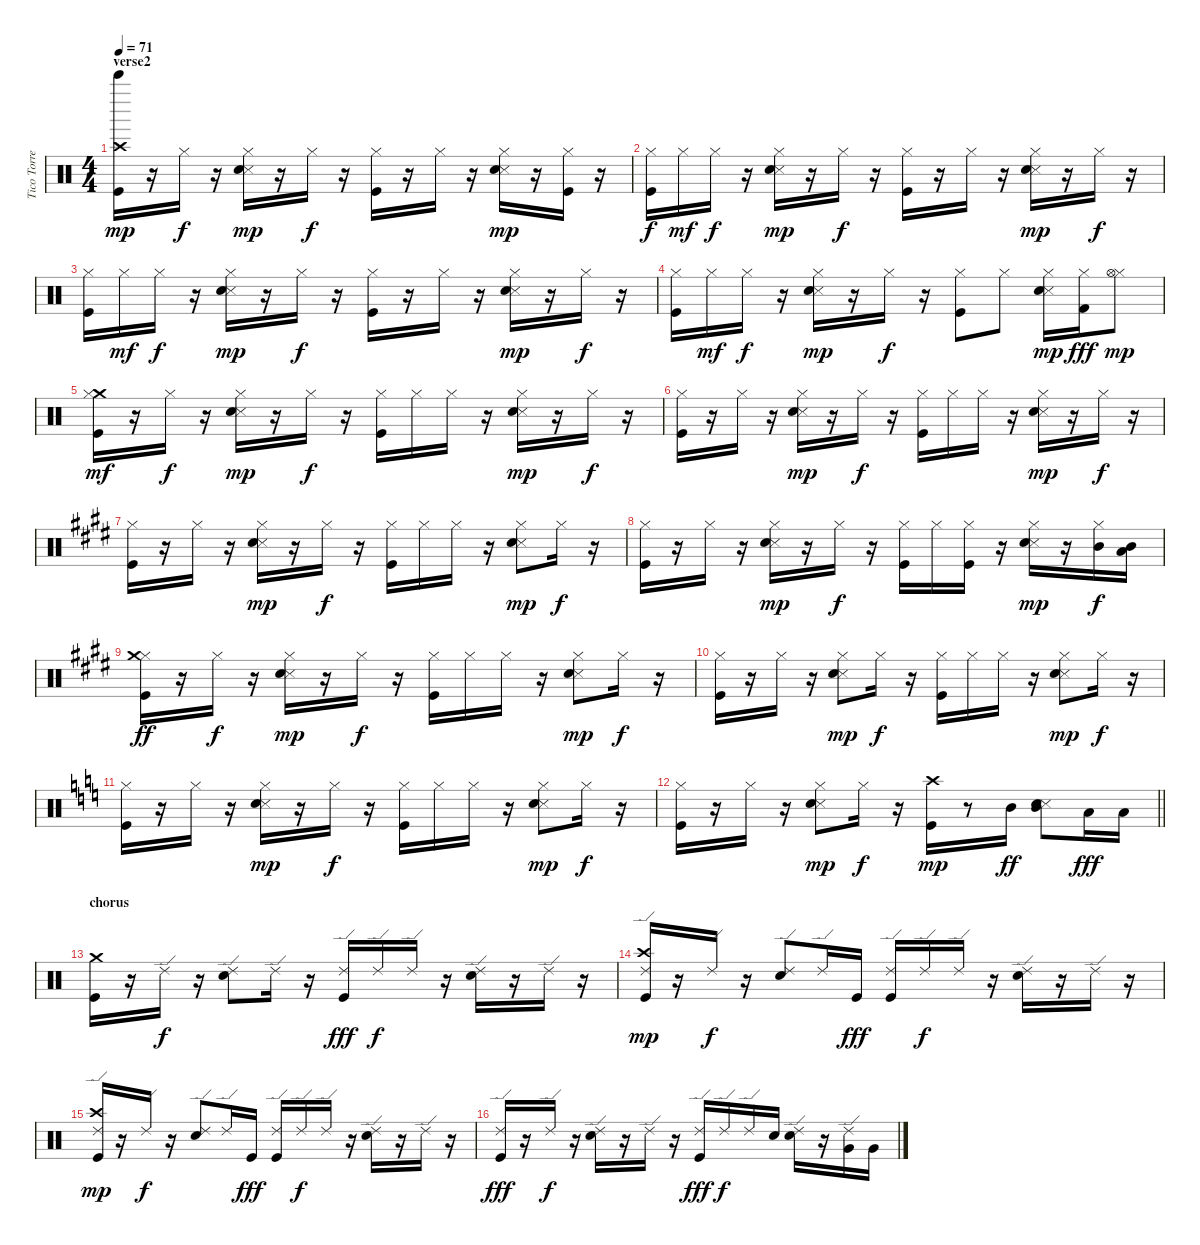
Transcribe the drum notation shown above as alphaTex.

\track ("Tico Torres" "Tico Torre") {instrument percussion}
\staff {score}
\articulation defaults
\ts (4 4)
\section ("" "verse2")
\tempo 71
\clef neutral
\ks c
("Kick (hit)" "Crash high (hit)" "Bell Tree (hit)").16{dy mp} r.16 "Hi-Hat (closed)".16{dy f} r.16 ("Snare (side stick) 3" "Hi-Hat (closed)" "Snare (hit) 2").16{dy mp} r.16 "Hi-Hat (closed)".16{dy f} r.16 ("Kick (hit)" "Hi-Hat (closed)").16 r.16 "Hi-Hat (closed)".16 r.16 ("Snare (side stick) 3" "Hi-Hat (closed)" "Snare (hit) 2").16{dy mp} r.16 ("Hi-Hat (closed)" "Kick (hit)").16 r.16 |
("Kick (hit)" "Hi-Hat (closed)").16{dy f} "Hi-Hat (closed)".16{dy mf} "Hi-Hat (closed)".16{dy f} r.16 ("Snare (side stick) 3" "Snare (hit) 2" "Hi-Hat (closed)").16{dy mp} r.16 "Hi-Hat (closed)".16{dy f} r.16 ("Kick (hit)" "Hi-Hat (closed)").16 r.16 "Hi-Hat (closed)".16 r.16 ("Snare (side stick) 3" "Snare (hit) 2" "Hi-Hat (closed)").16{dy mp} r.16 "Hi-Hat (closed)".16{dy f} r.16 |
("Kick (hit)" "Hi-Hat (closed)").16 "Hi-Hat (closed)".16{dy mf} "Hi-Hat (closed)".16{dy f} r.16 ("Snare (side stick) 3" "Snare (hit) 2" "Hi-Hat (closed)").16{dy mp} r.16 "Hi-Hat (closed)".16{dy f} r.16 ("Kick (hit)" "Hi-Hat (closed)").16 r.16 "Hi-Hat (closed)".16 r.16 ("Snare (side stick) 3" "Snare (hit) 2" "Hi-Hat (closed)").16{dy mp} r.16 "Hi-Hat (closed)".16{dy f} r.16 |
("Kick (hit)" "Hi-Hat (closed)").16 "Hi-Hat (closed)".16{dy mf} "Hi-Hat (closed)".16{dy f} r.16 ("Snare (side stick) 3" "Snare (hit) 2" "Hi-Hat (closed)").16{dy mp} r.16 "Hi-Hat (closed)".16{dy f} r.16 ("Kick (hit)" "Hi-Hat (closed)").8 "Hi-Hat (closed)".8 ("Snare (side stick) 3" "Snare (hit) 2" "Hi-Hat (closed)").16{dy mp} ("Hi-Hat (closed)" "Kick (hit) 2").16{dy fff} ("Hi-Hat (closed)" "Hi-Hat (open)").8{dy mp} |
("Crash medium (hit)" "Kick (hit)" "Hi-Hat (closed)").16{dy mf} r.16 "Hi-Hat (closed)".16{dy f} r.16 ("Snare (side stick) 3" "Snare (hit) 2" "Hi-Hat (closed)").16{dy mp} r.16 "Hi-Hat (closed)".16{dy f} r.16 ("Kick (hit)" "Hi-Hat (closed)").16 "Hi-Hat (closed)".16 "Hi-Hat (closed)".16 r.16 ("Snare (side stick) 3" "Snare (hit) 2" "Hi-Hat (closed)").16{dy mp} r.16 "Hi-Hat (closed)".16{dy f} r.16 |
("Kick (hit)" "Hi-Hat (closed)").16 r.16 "Hi-Hat (closed)".16 r.16 ("Snare (side stick) 3" "Snare (hit) 2" "Hi-Hat (closed)").16{dy mp} r.16 "Hi-Hat (closed)".16{dy f} r.16 ("Kick (hit)" "Hi-Hat (closed)").16 "Hi-Hat (closed)".16 "Hi-Hat (closed)".16 r.16 ("Snare (side stick) 3" "Snare (hit) 2" "Hi-Hat (closed)").16{dy mp} r.16 "Hi-Hat (closed)".16{dy f} r.16 |
\ks e
("Kick (hit)" "Hi-Hat (closed)").16 r.16 "Hi-Hat (closed)".16 r.16 ("Snare (side stick) 3" "Snare (hit) 2" "Hi-Hat (closed)").16{dy mp} r.16 "Hi-Hat (closed)".16{dy f} r.16 ("Kick (hit)" "Hi-Hat (closed)").16 "Hi-Hat (closed)".16 "Hi-Hat (closed)".16 r.16 ("Hi-Hat (closed)" "Snare (side stick) 3" "Snare (hit) 2").8{dy mp} "Hi-Hat (closed)".16{dy f} r.16 |
("Kick (hit)" "Hi-Hat (closed)").16 r.16 "Hi-Hat (closed)".16 r.16 ("Snare (side stick) 3" "Snare (hit) 2" "Hi-Hat (closed)").16{dy mp} r.16 "Hi-Hat (closed)".16{dy f} r.16 ("Kick (hit)" "Hi-Hat (closed)").16 "Hi-Hat (closed)".16 ("Kick (hit)" "Hi-Hat (closed)").16 r.16 ("Snare (side stick) 3" "Snare (hit) 2" "Hi-Hat (closed)").16{dy mp} r.16 ("Mid Tom (hit)" "Hi-Hat (closed)").16{dy f} ("Mid Tom (hit)" "Low Tom (hit)").16 |
("Kick (hit)" "Hi-Hat (closed)" "Crash medium (hit)").16{dy ff} r.16 "Hi-Hat (closed)".16{dy f} r.16 ("Snare (side stick) 3" "Snare (hit) 2" "Hi-Hat (closed)").16{dy mp} r.16 "Hi-Hat (closed)".16{dy f} r.16 ("Kick (hit)" "Hi-Hat (closed)").16 "Hi-Hat (closed)".16 "Hi-Hat (closed)".16 r.16 ("Hi-Hat (closed)" "Snare (side stick) 3" "Snare (hit) 2").8{dy mp} "Hi-Hat (closed)".16{dy f} r.16 |
("Kick (hit)" "Hi-Hat (closed)").16 r.16 "Hi-Hat (closed)".16 r.16 ("Snare (side stick) 3" "Snare (hit) 2" "Hi-Hat (closed)").8{dy mp} "Hi-Hat (closed)".16{dy f} r.16 ("Kick (hit)" "Hi-Hat (closed)").16 "Hi-Hat (closed)".16 "Hi-Hat (closed)".16 r.16 ("Hi-Hat (closed)" "Snare (side stick) 3" "Snare (hit) 2").8{dy mp} "Hi-Hat (closed)".16{dy f} r.16 |
\ks c
("Kick (hit)" "Hi-Hat (closed)").16 r.16 "Hi-Hat (closed)".16 r.16 ("Snare (side stick) 3" "Snare (hit) 2" "Hi-Hat (closed)").16{dy mp} r.16 "Hi-Hat (closed)".16{dy f} r.16 ("Kick (hit)" "Hi-Hat (closed)").16 "Hi-Hat (closed)".16 "Hi-Hat (closed)".16 r.16 ("Hi-Hat (closed)" "Snare (side stick) 3" "Snare (hit) 2").8{dy mp} "Hi-Hat (closed)".16{dy f} r.16 |
\barLineRight lightlight
("Kick (hit)" "Hi-Hat (closed)").16 r.16 "Hi-Hat (closed)".16 r.16 ("Snare (side stick) 3" "Snare (hit) 2" "Hi-Hat (closed)").8{dy mp} "Hi-Hat (closed)".16{dy f} r.16 ("Crash high (hit)" "Kick (hit)").16{dy mp} r.8 "Mid Tom (hit)".16{dy ff} ("Mid Tom (hit)" "Snare (side stick) 3" "Snare (hit) 2").8 "Low Tom (hit)".16{dy fff} "Low Tom (hit)".16 |
\section ("" "chorus")
("Kick (hit)" "Crash medium (hit)").16 r.16 "Ride (edge) 2".16{dy f} r.16 ("Snare (hit) 2" "Ride (edge) 2").8 "Ride (edge) 2".16 r.16 ("Kick (hit)" "Ride (edge) 2").16{dy fff} "Ride (edge) 2".16{dy f} "Ride (edge) 2".16 r.16 ("Snare (hit) 2" "Ride (edge) 2").16 r.16 "Ride (edge) 2".16 r.16 |
("Kick (hit)" "Crash high (hit)" "Ride (edge) 2").16{dy mp} r.16 "Ride (edge) 2".16{dy f} r.16 ("Snare (hit) 2" "Ride (edge) 2").8 "Ride (edge) 2".16 "Kick (hit)".16{dy fff} ("Kick (hit)" "Ride (edge) 2").16 "Ride (edge) 2".16{dy f} "Ride (edge) 2".16 r.16 ("Snare (hit) 2" "Ride (edge) 2").16 r.16 "Ride (edge) 2".16 r.16 |
("Kick (hit)" "Crash high (hit)" "Ride (edge) 2").16{dy mp} r.16 "Ride (edge) 2".16{dy f} r.16 ("Snare (hit) 2" "Ride (edge) 2").8 "Ride (edge) 2".16 "Kick (hit)".16{dy fff} ("Kick (hit)" "Ride (edge) 2").16 "Ride (edge) 2".16{dy f} "Ride (edge) 2".16 r.16 ("Snare (hit) 2" "Ride (edge) 2").16 r.16 "Ride (edge) 2".16 r.16 |
("Ride (edge) 2" "Kick (hit)").16{dy fff} r.16 "Ride (edge) 2".16{dy f} r.16 ("Ride (edge) 2" "Snare (hit) 2").16 r.16 "Ride (edge) 2".16 r.16 ("Ride (edge) 2" "Kick (hit)").16{dy fff} "Ride (edge) 2".16{dy f} "Ride (edge) 2".16 "Snare (hit) 2".16 ("Snare (hit) 2" "Ride (edge) 2").16 r.16 ("Very Low Tom (hit)" "Ride (edge) 2").16 "Very Low Tom (hit)".16
